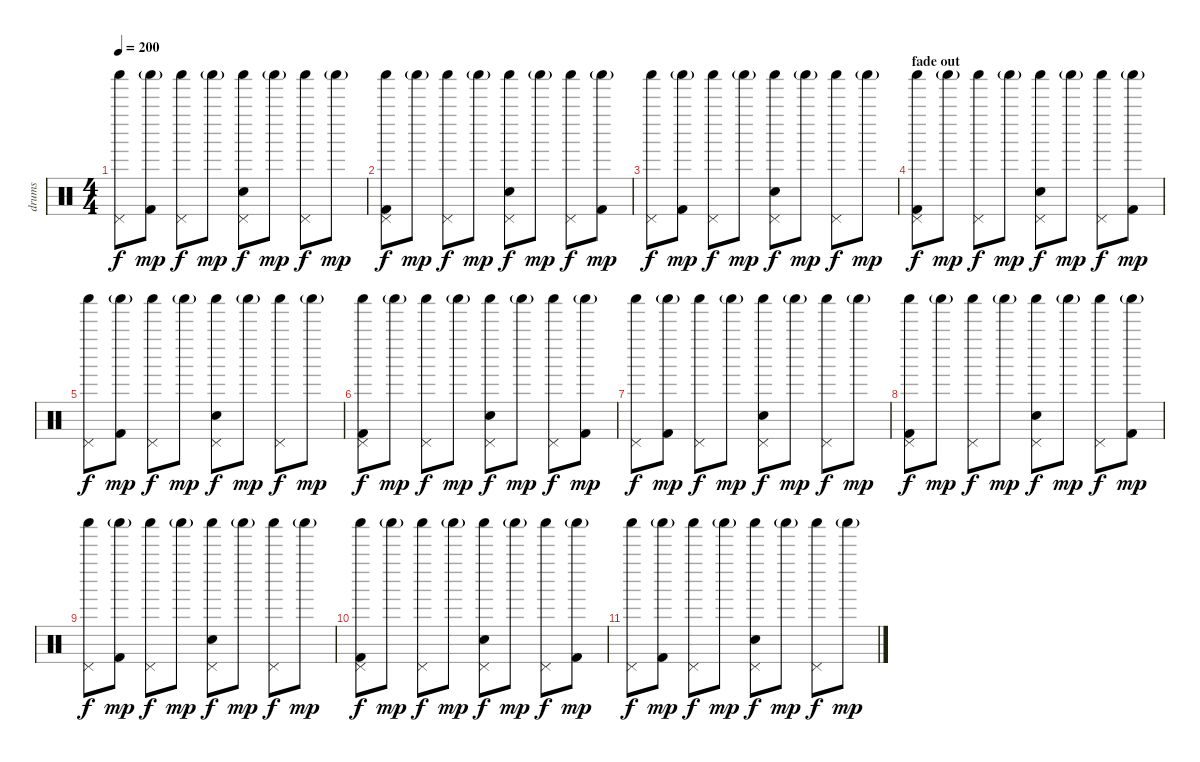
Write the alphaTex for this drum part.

\track ("drums" "drums") {instrument percussion}
\staff {score}
\articulation defaults
\ts (4 4)
\tempo 200
\clef neutral
\ks c
("Shaker (hit)" "Pedal Hi-Hat (hit)").8{dy f} ("Kick (hit) 2" "Shaker (hit)"{g}).8{dy mp} ("Shaker (hit)" "Pedal Hi-Hat (hit)").8{dy f} "Shaker (hit)"{g}.8{dy mp} ("Electric Snare (hit)" "Shaker (hit)" "Pedal Hi-Hat (hit)").8{dy f} "Shaker (hit)"{g}.8{dy mp} ("Shaker (hit)" "Pedal Hi-Hat (hit)").8{dy f} "Shaker (hit)"{g}.8{dy mp} |
("Kick (hit) 2" "Shaker (hit)" "Pedal Hi-Hat (hit)").8{dy f} "Shaker (hit)"{g}.8{dy mp} ("Shaker (hit)" "Pedal Hi-Hat (hit)").8{dy f} "Shaker (hit)"{g}.8{dy mp} ("Electric Snare (hit)" "Shaker (hit)" "Pedal Hi-Hat (hit)").8{dy f} "Shaker (hit)"{g}.8{dy mp} ("Shaker (hit)" "Pedal Hi-Hat (hit)").8{dy f} ("Kick (hit) 2" "Shaker (hit)"{g}).8{dy mp} |
("Shaker (hit)" "Pedal Hi-Hat (hit)").8{dy f} ("Kick (hit) 2" "Shaker (hit)"{g}).8{dy mp} ("Shaker (hit)" "Pedal Hi-Hat (hit)").8{dy f} "Shaker (hit)"{g}.8{dy mp} ("Electric Snare (hit)" "Shaker (hit)" "Pedal Hi-Hat (hit)").8{dy f} "Shaker (hit)"{g}.8{dy mp} ("Shaker (hit)" "Pedal Hi-Hat (hit)").8{dy f} "Shaker (hit)"{g}.8{dy mp} |
\section ("" "fade out")
("Kick (hit) 2" "Shaker (hit)" "Pedal Hi-Hat (hit)").8{dy f} "Shaker (hit)"{g}.8{dy mp} ("Shaker (hit)" "Pedal Hi-Hat (hit)").8{dy f} "Shaker (hit)"{g}.8{dy mp} ("Electric Snare (hit)" "Shaker (hit)" "Pedal Hi-Hat (hit)").8{dy f} "Shaker (hit)"{g}.8{dy mp} ("Shaker (hit)" "Pedal Hi-Hat (hit)").8{dy f} ("Kick (hit) 2" "Shaker (hit)"{g}).8{dy mp} |
("Shaker (hit)" "Pedal Hi-Hat (hit)").8{dy f} ("Kick (hit) 2" "Shaker (hit)"{g}).8{dy mp} ("Shaker (hit)" "Pedal Hi-Hat (hit)").8{dy f} "Shaker (hit)"{g}.8{dy mp} ("Electric Snare (hit)" "Shaker (hit)" "Pedal Hi-Hat (hit)").8{dy f} "Shaker (hit)"{g}.8{dy mp} ("Shaker (hit)" "Pedal Hi-Hat (hit)").8{dy f} "Shaker (hit)"{g}.8{dy mp} |
("Kick (hit) 2" "Shaker (hit)" "Pedal Hi-Hat (hit)").8{dy f} "Shaker (hit)"{g}.8{dy mp} ("Shaker (hit)" "Pedal Hi-Hat (hit)").8{dy f} "Shaker (hit)"{g}.8{dy mp} ("Electric Snare (hit)" "Shaker (hit)" "Pedal Hi-Hat (hit)").8{dy f} "Shaker (hit)"{g}.8{dy mp} ("Shaker (hit)" "Pedal Hi-Hat (hit)").8{dy f} ("Kick (hit) 2" "Shaker (hit)"{g}).8{dy mp} |
("Shaker (hit)" "Pedal Hi-Hat (hit)").8{dy f} ("Kick (hit) 2" "Shaker (hit)"{g}).8{dy mp} ("Shaker (hit)" "Pedal Hi-Hat (hit)").8{dy f} "Shaker (hit)"{g}.8{dy mp} ("Electric Snare (hit)" "Shaker (hit)" "Pedal Hi-Hat (hit)").8{dy f} "Shaker (hit)"{g}.8{dy mp} ("Shaker (hit)" "Pedal Hi-Hat (hit)").8{dy f} "Shaker (hit)"{g}.8{dy mp} |
("Kick (hit) 2" "Shaker (hit)" "Pedal Hi-Hat (hit)").8{dy f} "Shaker (hit)"{g}.8{dy mp} ("Shaker (hit)" "Pedal Hi-Hat (hit)").8{dy f} "Shaker (hit)"{g}.8{dy mp} ("Electric Snare (hit)" "Shaker (hit)" "Pedal Hi-Hat (hit)").8{dy f} "Shaker (hit)"{g}.8{dy mp} ("Shaker (hit)" "Pedal Hi-Hat (hit)").8{dy f} ("Kick (hit) 2" "Shaker (hit)"{g}).8{dy mp} |
("Shaker (hit)" "Pedal Hi-Hat (hit)").8{dy f} ("Kick (hit) 2" "Shaker (hit)"{g}).8{dy mp} ("Shaker (hit)" "Pedal Hi-Hat (hit)").8{dy f} "Shaker (hit)"{g}.8{dy mp} ("Electric Snare (hit)" "Shaker (hit)" "Pedal Hi-Hat (hit)").8{dy f} "Shaker (hit)"{g}.8{dy mp} ("Shaker (hit)" "Pedal Hi-Hat (hit)").8{dy f} "Shaker (hit)"{g}.8{dy mp} |
("Kick (hit) 2" "Shaker (hit)" "Pedal Hi-Hat (hit)").8{dy f} "Shaker (hit)"{g}.8{dy mp} ("Shaker (hit)" "Pedal Hi-Hat (hit)").8{dy f} "Shaker (hit)"{g}.8{dy mp} ("Electric Snare (hit)" "Shaker (hit)" "Pedal Hi-Hat (hit)").8{dy f} "Shaker (hit)"{g}.8{dy mp} ("Shaker (hit)" "Pedal Hi-Hat (hit)").8{dy f} ("Kick (hit) 2" "Shaker (hit)"{g}).8{dy mp} |
("Shaker (hit)" "Pedal Hi-Hat (hit)").8{dy f} ("Kick (hit) 2" "Shaker (hit)"{g}).8{dy mp} ("Shaker (hit)" "Pedal Hi-Hat (hit)").8{dy f} "Shaker (hit)"{g}.8{dy mp} ("Electric Snare (hit)" "Shaker (hit)" "Pedal Hi-Hat (hit)").8{dy f} "Shaker (hit)"{g}.8{dy mp} ("Shaker (hit)" "Pedal Hi-Hat (hit)").8{dy f} "Shaker (hit)"{g}.8{dy mp}
